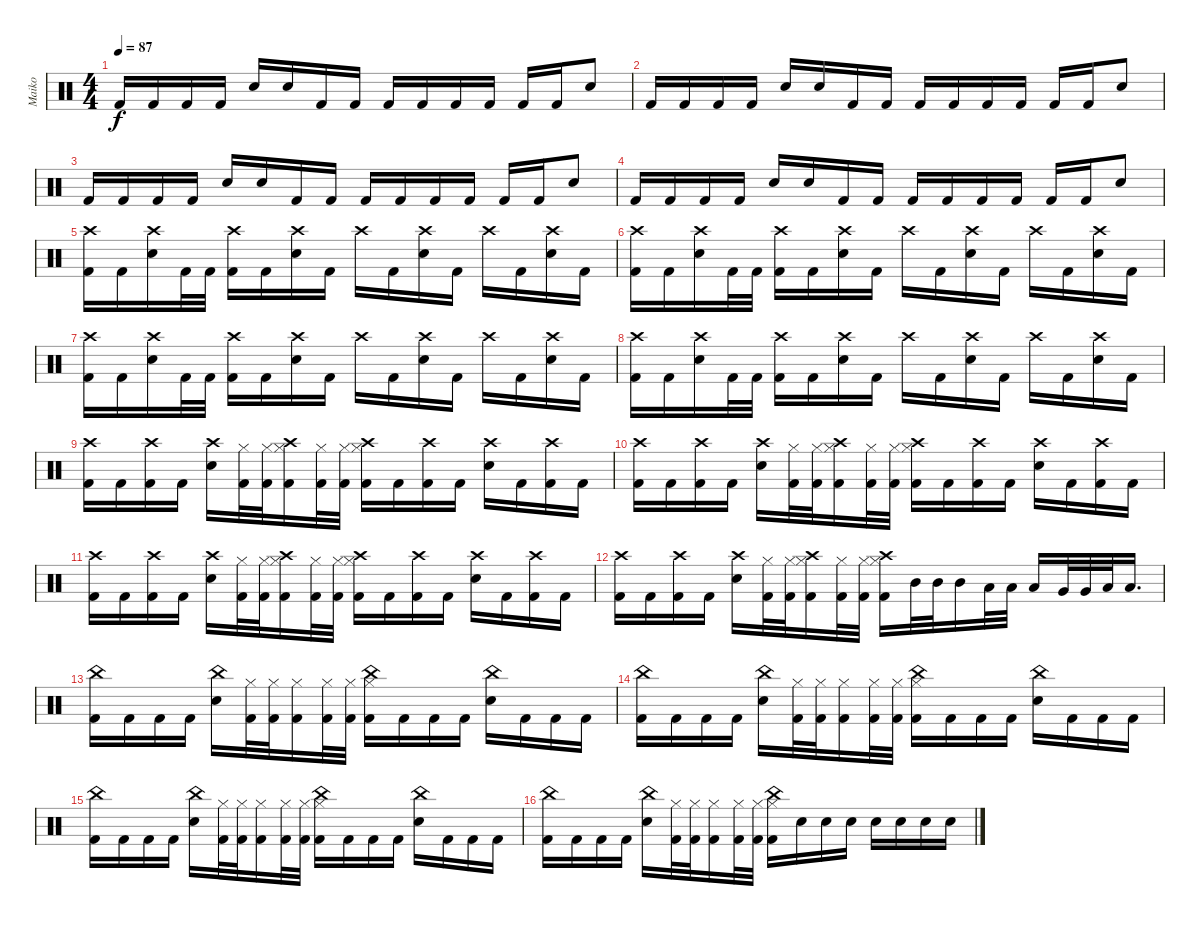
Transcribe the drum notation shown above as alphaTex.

\track ("Maiko" "Maiko") {instrument percussion}
\staff {score}
\articulation defaults
\ts (4 4)
\tempo 87
\clef neutral
\ks c "Kick (hit) 2".16{dy f} "Kick (hit) 2".16 "Kick (hit) 2".16 "Kick (hit) 2".16 "Electric Snare (hit)".16 "Electric Snare (hit)".16 "Kick (hit) 2".16 "Kick (hit) 2".16 "Kick (hit) 2".16 "Kick (hit) 2".16 "Kick (hit) 2".16 "Kick (hit) 2".16 "Kick (hit) 2".16 "Kick (hit) 2".16 "Electric Snare (hit)".8
|
"Kick (hit) 2".16 "Kick (hit) 2".16 "Kick (hit) 2".16 "Kick (hit) 2".16 "Electric Snare (hit)".16 "Electric Snare (hit)".16 "Kick (hit) 2".16 "Kick (hit) 2".16 "Kick (hit) 2".16 "Kick (hit) 2".16 "Kick (hit) 2".16 "Kick (hit) 2".16 "Kick (hit) 2".16 "Kick (hit) 2".16 "Electric Snare (hit)".8 |
"Kick (hit) 2".16 "Kick (hit) 2".16 "Kick (hit) 2".16 "Kick (hit) 2".16 "Electric Snare (hit)".16 "Electric Snare (hit)".16 "Kick (hit) 2".16 "Kick (hit) 2".16 "Kick (hit) 2".16 "Kick (hit) 2".16 "Kick (hit) 2".16 "Kick (hit) 2".16 "Kick (hit) 2".16 "Kick (hit) 2".16 "Electric Snare (hit)".8 |
"Kick (hit) 2".16 "Kick (hit) 2".16 "Kick (hit) 2".16 "Kick (hit) 2".16 "Electric Snare (hit)".16 "Electric Snare (hit)".16 "Kick (hit) 2".16 "Kick (hit) 2".16 "Kick (hit) 2".16 "Kick (hit) 2".16 "Kick (hit) 2".16 "Kick (hit) 2".16 "Kick (hit) 2".16 "Kick (hit) 2".16 "Electric Snare (hit)".8 |
("Crash high (hit)" "Kick (hit) 2").16 "Kick (hit) 2".16 ("Crash high (hit)" "Electric Snare (hit)").16 "Kick (hit) 2".32 "Kick (hit) 2".32 ("Crash high (hit)" "Kick (hit) 2").16 "Kick (hit) 2".16 ("Crash high (hit)" "Electric Snare (hit)").16 "Kick (hit) 2".16 "Crash high (hit)".16 "Kick (hit) 2".16 ("Crash high (hit)" "Electric Snare (hit)").16 "Kick (hit) 2".16 "Crash high (hit)".16 "Kick (hit) 2".16 ("Crash high (hit)" "Electric Snare (hit)").16 "Kick (hit) 2".16 |
("Crash high (hit)" "Kick (hit) 2").16 "Kick (hit) 2".16 ("Crash high (hit)" "Electric Snare (hit)").16 "Kick (hit) 2".32 "Kick (hit) 2".32 ("Crash high (hit)" "Kick (hit) 2").16 "Kick (hit) 2".16 ("Crash high (hit)" "Electric Snare (hit)").16 "Kick (hit) 2".16 "Crash high (hit)".16 "Kick (hit) 2".16 ("Crash high (hit)" "Electric Snare (hit)").16 "Kick (hit) 2".16 "Crash high (hit)".16 "Kick (hit) 2".16 ("Crash high (hit)" "Electric Snare (hit)").16 "Kick (hit) 2".16 |
("Crash high (hit)" "Kick (hit) 2").16 "Kick (hit) 2".16 ("Crash high (hit)" "Electric Snare (hit)").16 "Kick (hit) 2".32 "Kick (hit) 2".32 ("Crash high (hit)" "Kick (hit) 2").16 "Kick (hit) 2".16 ("Crash high (hit)" "Electric Snare (hit)").16 "Kick (hit) 2".16 "Crash high (hit)".16 "Kick (hit) 2".16 ("Crash high (hit)" "Electric Snare (hit)").16 "Kick (hit) 2".16 "Crash high (hit)".16 "Kick (hit) 2".16 ("Crash high (hit)" "Electric Snare (hit)").16 "Kick (hit) 2".16 |
("Crash high (hit)" "Kick (hit) 2").16 "Kick (hit) 2".16 ("Crash high (hit)" "Electric Snare (hit)").16 "Kick (hit) 2".32 "Kick (hit) 2".32 ("Crash high (hit)" "Kick (hit) 2").16 "Kick (hit) 2".16 ("Crash high (hit)" "Electric Snare (hit)").16 "Kick (hit) 2".16 "Crash high (hit)".16 "Kick (hit) 2".16 ("Crash high (hit)" "Electric Snare (hit)").16 "Kick (hit) 2".16 "Crash high (hit)".16 "Kick (hit) 2".16 ("Crash high (hit)" "Electric Snare (hit)").16 "Kick (hit) 2".16 |
("Crash high (hit)" "Kick (hit) 2").16 "Kick (hit) 2".16 ("Crash high (hit)" "Kick (hit) 2").16 "Kick (hit) 2".16 ("Crash high (hit)" "Electric Snare (hit)").16 ("Hi-Hat (closed)" "Kick (hit) 2").32 ("Hi-Hat (closed)" "Kick (hit) 2").32 ("Crash high (hit)" "Hi-Hat (closed)" "Kick (hit) 2").16 ("Hi-Hat (closed)" "Kick (hit) 2").32 ("Hi-Hat (closed)" "Kick (hit) 2").32 ("Crash high (hit)" "Hi-Hat (closed)" "Kick (hit) 2").16 "Kick (hit) 2".16 ("Crash high (hit)" "Kick (hit) 2").16 "Kick (hit) 2".16 ("Crash high (hit)" "Electric Snare (hit)").16 "Kick (hit) 2".16 ("Crash high (hit)" "Kick (hit) 2").16 "Kick (hit) 2".16 |
("Crash high (hit)" "Kick (hit) 2").16 "Kick (hit) 2".16 ("Crash high (hit)" "Kick (hit) 2").16 "Kick (hit) 2".16 ("Crash high (hit)" "Electric Snare (hit)").16 ("Hi-Hat (closed)" "Kick (hit) 2").32 ("Hi-Hat (closed)" "Kick (hit) 2").32 ("Crash high (hit)" "Hi-Hat (closed)" "Kick (hit) 2").16 ("Hi-Hat (closed)" "Kick (hit) 2").32 ("Hi-Hat (closed)" "Kick (hit) 2").32 ("Crash high (hit)" "Hi-Hat (closed)" "Kick (hit) 2").16 "Kick (hit) 2".16 ("Crash high (hit)" "Kick (hit) 2").16 "Kick (hit) 2".16 ("Crash high (hit)" "Electric Snare (hit)").16 "Kick (hit) 2".16 ("Crash high (hit)" "Kick (hit) 2").16 "Kick (hit) 2".16 |
("Crash high (hit)" "Kick (hit) 2").16 "Kick (hit) 2".16 ("Crash high (hit)" "Kick (hit) 2").16 "Kick (hit) 2".16 ("Crash high (hit)" "Electric Snare (hit)").16 ("Hi-Hat (closed)" "Kick (hit) 2").32 ("Hi-Hat (closed)" "Kick (hit) 2").32 ("Crash high (hit)" "Hi-Hat (closed)" "Kick (hit) 2").16 ("Hi-Hat (closed)" "Kick (hit) 2").32 ("Hi-Hat (closed)" "Kick (hit) 2").32 ("Crash high (hit)" "Hi-Hat (closed)" "Kick (hit) 2").16 "Kick (hit) 2".16 ("Crash high (hit)" "Kick (hit) 2").16 "Kick (hit) 2".16 ("Crash high (hit)" "Electric Snare (hit)").16 "Kick (hit) 2".16 ("Crash high (hit)" "Kick (hit) 2").16 "Kick (hit) 2".16 |
("Crash high (hit)" "Kick (hit) 2").16 "Kick (hit) 2".16 ("Crash high (hit)" "Kick (hit) 2").16 "Kick (hit) 2".16 ("Crash high (hit)" "Electric Snare (hit)").16 ("Hi-Hat (closed)" "Kick (hit) 2").32 ("Hi-Hat (closed)" "Kick (hit) 2").32 ("Crash high (hit)" "Hi-Hat (closed)" "Kick (hit) 2").16 ("Hi-Hat (closed)" "Kick (hit) 2").32 ("Hi-Hat (closed)" "Kick (hit) 2").32 ("Crash high (hit)" "Hi-Hat (closed)" "Kick (hit) 2").16 "Mid Tom (hit)".32 "Mid Tom (hit)".32 "Mid Tom (hit)".16 "Low Tom (hit)".32 "Low Tom (hit)".32 "Low Tom (hit)".16 "Very Low Tom (hit)".32 "Very Low Tom (hit)".32 "Low Floor Tom (hit)".32 "Low Floor Tom (hit)".16{d} |
("China (hit)" "Kick (hit) 2").16 "Kick (hit) 2".16 "Kick (hit) 2".16 "Kick (hit) 2".16 ("China (hit)" "Electric Snare (hit)").16 ("Hi-Hat (closed)" "Kick (hit) 2").32 ("Hi-Hat (closed)" "Kick (hit) 2").32 ("Hi-Hat (closed)" "Kick (hit) 2").16 ("Hi-Hat (closed)" "Kick (hit) 2").32 ("Hi-Hat (closed)" "Kick (hit) 2").32 ("Hi-Hat (closed)" "China (hit)" "Kick (hit) 2").16 "Kick (hit) 2".16 "Kick (hit) 2".16 "Kick (hit) 2".16 ("China (hit)" "Electric Snare (hit)").16 "Kick (hit) 2".16 "Kick (hit) 2".16 "Kick (hit) 2".16 |
("China (hit)" "Kick (hit) 2").16 "Kick (hit) 2".16 "Kick (hit) 2".16 "Kick (hit) 2".16 ("China (hit)" "Electric Snare (hit)").16 ("Hi-Hat (closed)" "Kick (hit) 2").32 ("Hi-Hat (closed)" "Kick (hit) 2").32 ("Hi-Hat (closed)" "Kick (hit) 2").16 ("Hi-Hat (closed)" "Kick (hit) 2").32 ("Hi-Hat (closed)" "Kick (hit) 2").32 ("Hi-Hat (closed)" "China (hit)" "Kick (hit) 2").16 "Kick (hit) 2".16 "Kick (hit) 2".16 "Kick (hit) 2".16 ("China (hit)" "Electric Snare (hit)").16 "Kick (hit) 2".16 "Kick (hit) 2".16 "Kick (hit) 2".16 |
("China (hit)" "Kick (hit) 2").16 "Kick (hit) 2".16 "Kick (hit) 2".16 "Kick (hit) 2".16 ("China (hit)" "Electric Snare (hit)").16 ("Hi-Hat (closed)" "Kick (hit) 2").32 ("Hi-Hat (closed)" "Kick (hit) 2").32 ("Hi-Hat (closed)" "Kick (hit) 2").16 ("Hi-Hat (closed)" "Kick (hit) 2").32 ("Hi-Hat (closed)" "Kick (hit) 2").32 ("Hi-Hat (closed)" "China (hit)" "Kick (hit) 2").16 "Kick (hit) 2".16 "Kick (hit) 2".16 "Kick (hit) 2".16 ("China (hit)" "Electric Snare (hit)").16 "Kick (hit) 2".16 "Kick (hit) 2".16 "Kick (hit) 2".16 |
("China (hit)" "Kick (hit) 2").16 "Kick (hit) 2".16 "Kick (hit) 2".16 "Kick (hit) 2".16 ("China (hit)" "Electric Snare (hit)").16 ("Hi-Hat (closed)" "Kick (hit) 2").32 ("Hi-Hat (closed)" "Kick (hit) 2").32 ("Hi-Hat (closed)" "Kick (hit) 2").16 ("Hi-Hat (closed)" "Kick (hit) 2").32 ("Hi-Hat (closed)" "Kick (hit) 2").32 ("Hi-Hat (closed)" "China (hit)" "Kick (hit) 2").16 "Electric Snare (hit)".16 "Electric Snare (hit)".16 "Electric Snare (hit)".16 "Electric Snare (hit)".16 "Electric Snare (hit)".16 "Electric Snare (hit)".16 "Electric Snare (hit)".16
